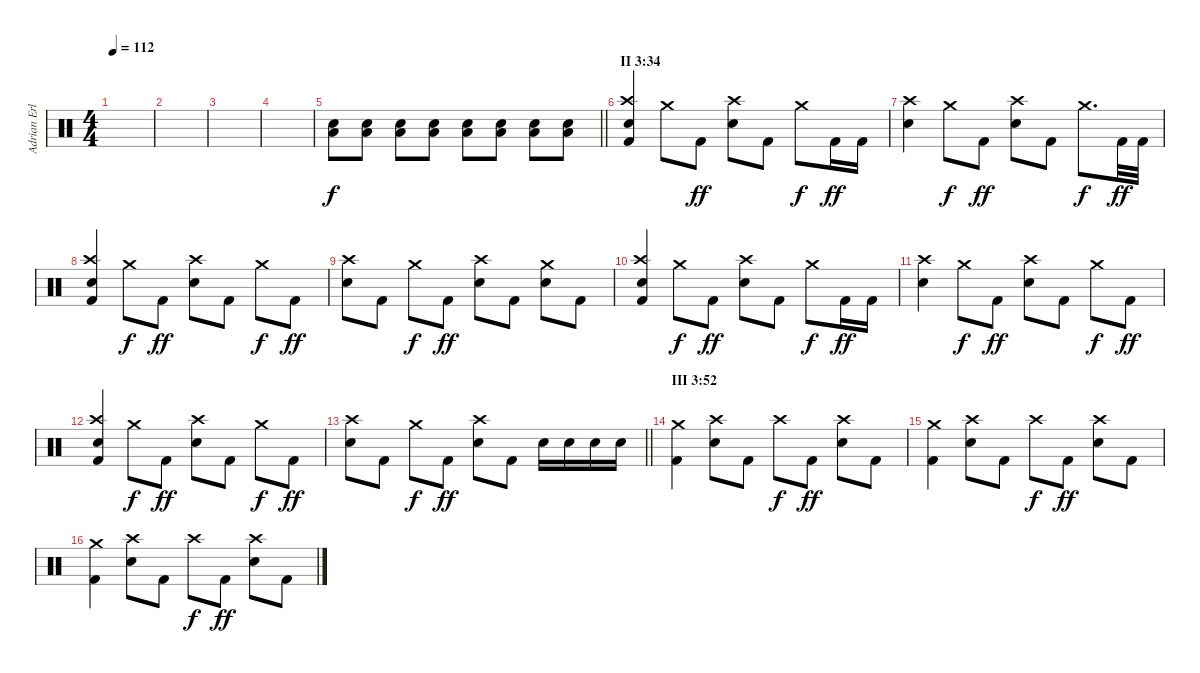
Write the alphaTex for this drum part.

\track ("Adrian Erlandsson (Drums)" "Adrian Erl") {instrument percussion}
\staff {score}
\articulation defaults
\ts (4 4)
\tempo 112
\clef neutral
\ks c
|
|
|
|
\barLineRight lightlight
("Electric Snare (hit)" "Low Floor Tom (hit)").8 ("Electric Snare (hit)" "Low Floor Tom (hit)").8 ("Electric Snare (hit)" "Low Floor Tom (hit)").8 ("Electric Snare (hit)" "Low Floor Tom (hit)").8 ("Electric Snare (hit)" "Low Floor Tom (hit)").8 ("Electric Snare (hit)" "Low Floor Tom (hit)").8 ("Electric Snare (hit)" "Low Floor Tom (hit)").8 ("Electric Snare (hit)" "Low Floor Tom (hit)").8 |
\section ("" "II 3:34")
("Crash high (hit)" "Electric Snare (hit)" "Kick (hit) 2").4 "Crash medium (hit)".8{dy f} "Kick (hit) 2".8{dy ff} ("Crash high (hit)" "Electric Snare (hit)").8 "Kick (hit) 2".8 "Crash medium (hit)".8{dy f} "Kick (hit) 2".16{dy ff} "Kick (hit) 2".16 |
("Crash high (hit)" "Electric Snare (hit)").4 "Crash medium (hit)".8{dy f} "Kick (hit) 2".8{dy ff} ("Crash high (hit)" "Electric Snare (hit)").8 "Kick (hit) 2".8 "Crash medium (hit)".8{d dy f} "Kick (hit) 2".32{dy ff} "Kick (hit) 2".32 |
("Crash high (hit)" "Electric Snare (hit)" "Kick (hit) 2").4 "Crash medium (hit)".8{dy f} "Kick (hit) 2".8{dy ff} ("Crash high (hit)" "Electric Snare (hit)").8 "Kick (hit) 2".8 "Crash medium (hit)".8{dy f} "Kick (hit) 2".8{dy ff} |
("Crash high (hit)" "Electric Snare (hit)").8 "Kick (hit) 2".8 "Crash medium (hit)".8{dy f} "Kick (hit) 2".8{dy ff} ("Crash high (hit)" "Electric Snare (hit)").8 "Kick (hit) 2".8 ("Crash medium (hit)" "Electric Snare (hit)").8 "Kick (hit) 2".8 |
("Crash high (hit)" "Electric Snare (hit)" "Kick (hit) 2").4 "Crash medium (hit)".8{dy f} "Kick (hit) 2".8{dy ff} ("Crash high (hit)" "Electric Snare (hit)").8 "Kick (hit) 2".8 "Crash medium (hit)".8{dy f} "Kick (hit) 2".16{dy ff} "Kick (hit) 2".16 |
("Crash high (hit)" "Electric Snare (hit)").4 "Crash medium (hit)".8{dy f} "Kick (hit) 2".8{dy ff} ("Crash high (hit)" "Electric Snare (hit)").8 "Kick (hit) 2".8 "Crash medium (hit)".8{dy f} "Kick (hit) 2".8{dy ff} |
("Crash high (hit)" "Electric Snare (hit)" "Kick (hit) 2").4 "Crash medium (hit)".8{dy f} "Kick (hit) 2".8{dy ff} ("Crash high (hit)" "Electric Snare (hit)").8 "Kick (hit) 2".8 "Crash medium (hit)".8{dy f} "Kick (hit) 2".8{dy ff} |
\barLineRight lightlight
("Crash high (hit)" "Electric Snare (hit)").8 "Kick (hit) 2".8 "Crash medium (hit)".8{dy f} "Kick (hit) 2".8{dy ff} ("Crash high (hit)" "Electric Snare (hit)").8 "Kick (hit) 2".8 "Electric Snare (hit)".16 "Electric Snare (hit)".16 "Electric Snare (hit)".16 "Electric Snare (hit)".16 |
\section ("" "III 3:52")
("Crash medium (hit)" "Kick (hit) 2").4 ("Crash high (hit)" "Electric Snare (hit)").8 "Kick (hit) 2".8 "Crash high (hit)".8{dy f} "Kick (hit) 2".8{dy ff} ("Crash high (hit)" "Electric Snare (hit)").8 "Kick (hit) 2".8 |
("Crash medium (hit)" "Kick (hit) 2").4 ("Crash high (hit)" "Electric Snare (hit)").8 "Kick (hit) 2".8 "Crash high (hit)".8{dy f} "Kick (hit) 2".8{dy ff} ("Crash high (hit)" "Electric Snare (hit)").8 "Kick (hit) 2".8 |
("Crash medium (hit)" "Kick (hit) 2").4 ("Crash high (hit)" "Electric Snare (hit)").8 "Kick (hit) 2".8 "Crash high (hit)".8{dy f} "Kick (hit) 2".8{dy ff} ("Crash high (hit)" "Electric Snare (hit)").8 "Kick (hit) 2".8
